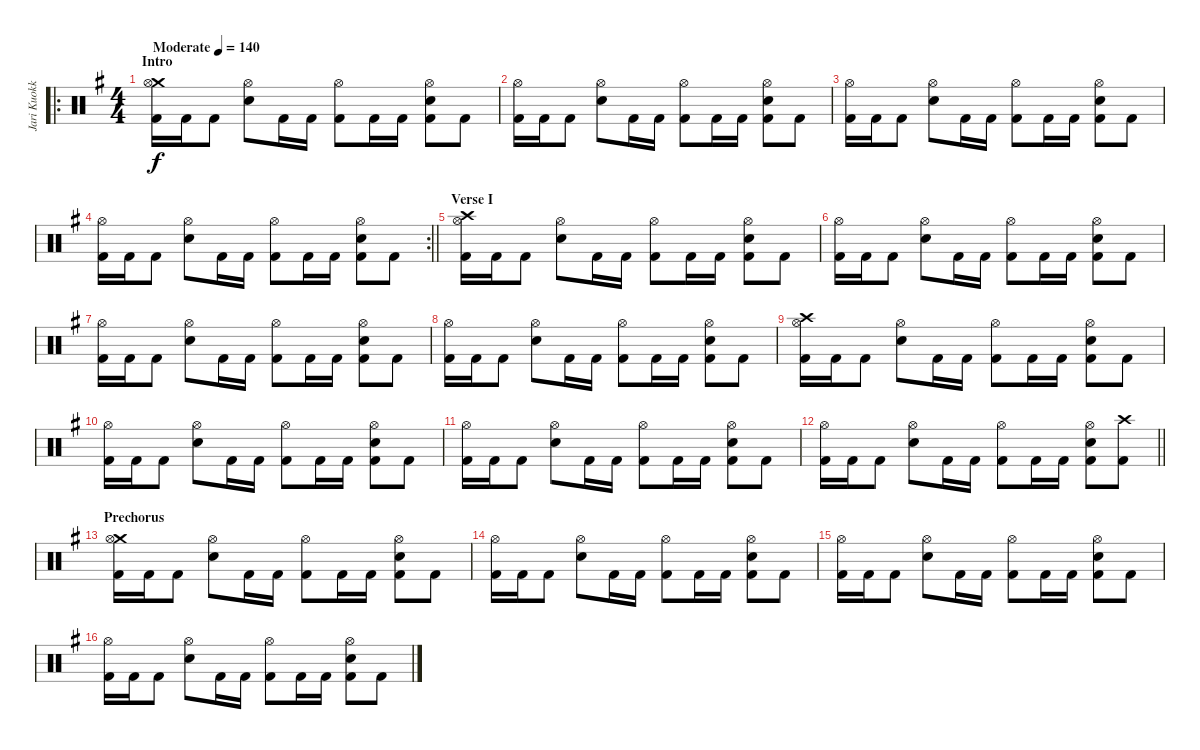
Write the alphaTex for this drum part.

\track ("Jari Kuokkanen" "Jari Kuokk") {instrument percussion}
\staff {score}
\articulation defaults
\ro
\ts (4 4)
\section ("" "Intro")
\tempo (140 "Moderate")
\clef neutral
\ks eminor
("Crash medium (hit)" "Hi-Hat (open)" "Kick (hit) 2").16{dy f} "Kick (hit) 2".16 "Kick (hit) 2".8 ("Hi-Hat (open)" "Snare (hit) 2").8 "Kick (hit) 2".16 "Kick (hit) 2".16 ("Hi-Hat (open)" "Kick (hit) 2").8 "Kick (hit) 2".16 "Kick (hit) 2".16 ("Hi-Hat (open)" "Snare (hit) 2" "Kick (hit) 2").8 "Kick (hit) 2".8 |
("Hi-Hat (open)" "Kick (hit) 2").16 "Kick (hit) 2".16 "Kick (hit) 2".8 ("Hi-Hat (open)" "Snare (hit) 2").8 "Kick (hit) 2".16 "Kick (hit) 2".16 ("Hi-Hat (open)" "Kick (hit) 2").8 "Kick (hit) 2".16 "Kick (hit) 2".16 ("Hi-Hat (open)" "Snare (hit) 2" "Kick (hit) 2").8 "Kick (hit) 2".8 |
("Hi-Hat (open)" "Kick (hit) 2").16 "Kick (hit) 2".16 "Kick (hit) 2".8 ("Hi-Hat (open)" "Snare (hit) 2").8 "Kick (hit) 2".16 "Kick (hit) 2".16 ("Hi-Hat (open)" "Kick (hit) 2").8 "Kick (hit) 2".16 "Kick (hit) 2".16 ("Hi-Hat (open)" "Snare (hit) 2" "Kick (hit) 2").8 "Kick (hit) 2".8 |
\rc 2
\barLineRight lightlight
("Hi-Hat (open)" "Kick (hit) 2").16 "Kick (hit) 2".16 "Kick (hit) 2".8 ("Hi-Hat (open)" "Snare (hit) 2").8 "Kick (hit) 2".16 "Kick (hit) 2".16 ("Hi-Hat (open)" "Kick (hit) 2").8 "Kick (hit) 2".16 "Kick (hit) 2".16 ("Hi-Hat (open)" "Snare (hit) 2" "Kick (hit) 2").8 "Kick (hit) 2".8 |
\section ("" "Verse I")
("Crash high (hit)" "Hi-Hat (open)" "Kick (hit) 2").16 "Kick (hit) 2".16 "Kick (hit) 2".8 ("Hi-Hat (open)" "Snare (hit) 2").8 "Kick (hit) 2".16 "Kick (hit) 2".16 ("Hi-Hat (open)" "Kick (hit) 2").8 "Kick (hit) 2".16 "Kick (hit) 2".16 ("Hi-Hat (open)" "Snare (hit) 2" "Kick (hit) 2").8 "Kick (hit) 2".8 |
("Hi-Hat (open)" "Kick (hit) 2").16 "Kick (hit) 2".16 "Kick (hit) 2".8 ("Hi-Hat (open)" "Snare (hit) 2").8 "Kick (hit) 2".16 "Kick (hit) 2".16 ("Hi-Hat (open)" "Kick (hit) 2").8 "Kick (hit) 2".16 "Kick (hit) 2".16 ("Hi-Hat (open)" "Snare (hit) 2" "Kick (hit) 2").8 "Kick (hit) 2".8 |
("Hi-Hat (open)" "Kick (hit) 2").16 "Kick (hit) 2".16 "Kick (hit) 2".8 ("Hi-Hat (open)" "Snare (hit) 2").8 "Kick (hit) 2".16 "Kick (hit) 2".16 ("Hi-Hat (open)" "Kick (hit) 2").8 "Kick (hit) 2".16 "Kick (hit) 2".16 ("Hi-Hat (open)" "Snare (hit) 2" "Kick (hit) 2").8 "Kick (hit) 2".8 |
("Hi-Hat (open)" "Kick (hit) 2").16 "Kick (hit) 2".16 "Kick (hit) 2".8 ("Hi-Hat (open)" "Snare (hit) 2").8 "Kick (hit) 2".16 "Kick (hit) 2".16 ("Hi-Hat (open)" "Kick (hit) 2").8 "Kick (hit) 2".16 "Kick (hit) 2".16 ("Hi-Hat (open)" "Snare (hit) 2" "Kick (hit) 2").8 "Kick (hit) 2".8 |
("Crash high (hit)" "Hi-Hat (open)" "Kick (hit) 2").16 "Kick (hit) 2".16 "Kick (hit) 2".8 ("Hi-Hat (open)" "Snare (hit) 2").8 "Kick (hit) 2".16 "Kick (hit) 2".16 ("Hi-Hat (open)" "Kick (hit) 2").8 "Kick (hit) 2".16 "Kick (hit) 2".16 ("Hi-Hat (open)" "Snare (hit) 2" "Kick (hit) 2").8 "Kick (hit) 2".8 |
("Hi-Hat (open)" "Kick (hit) 2").16 "Kick (hit) 2".16 "Kick (hit) 2".8 ("Hi-Hat (open)" "Snare (hit) 2").8 "Kick (hit) 2".16 "Kick (hit) 2".16 ("Hi-Hat (open)" "Kick (hit) 2").8 "Kick (hit) 2".16 "Kick (hit) 2".16 ("Hi-Hat (open)" "Snare (hit) 2" "Kick (hit) 2").8 "Kick (hit) 2".8 |
("Hi-Hat (open)" "Kick (hit) 2").16 "Kick (hit) 2".16 "Kick (hit) 2".8 ("Hi-Hat (open)" "Snare (hit) 2").8 "Kick (hit) 2".16 "Kick (hit) 2".16 ("Hi-Hat (open)" "Kick (hit) 2").8 "Kick (hit) 2".16 "Kick (hit) 2".16 ("Hi-Hat (open)" "Snare (hit) 2" "Kick (hit) 2").8 "Kick (hit) 2".8 |
\barLineRight lightlight
("Hi-Hat (open)" "Kick (hit) 2").16 "Kick (hit) 2".16 "Kick (hit) 2".8 ("Hi-Hat (open)" "Snare (hit) 2").8 "Kick (hit) 2".16 "Kick (hit) 2".16 ("Hi-Hat (open)" "Kick (hit) 2").8 "Kick (hit) 2".16 "Kick (hit) 2".16 ("Hi-Hat (open)" "Snare (hit) 2" "Kick (hit) 2").8 ("Crash high (hit)" "Kick (hit) 2").8 |
\section ("" "Prechorus")
("Crash medium (hit)" "Hi-Hat (open)" "Kick (hit) 2").16 "Kick (hit) 2".16 "Kick (hit) 2".8 ("Hi-Hat (open)" "Snare (hit) 2").8 "Kick (hit) 2".16 "Kick (hit) 2".16 ("Hi-Hat (open)" "Kick (hit) 2").8 "Kick (hit) 2".16 "Kick (hit) 2".16 ("Hi-Hat (open)" "Snare (hit) 2" "Kick (hit) 2").8 "Kick (hit) 2".8 |
("Hi-Hat (open)" "Kick (hit) 2").16 "Kick (hit) 2".16 "Kick (hit) 2".8 ("Hi-Hat (open)" "Snare (hit) 2").8 "Kick (hit) 2".16 "Kick (hit) 2".16 ("Hi-Hat (open)" "Kick (hit) 2").8 "Kick (hit) 2".16 "Kick (hit) 2".16 ("Hi-Hat (open)" "Snare (hit) 2" "Kick (hit) 2").8 "Kick (hit) 2".8 |
("Hi-Hat (open)" "Kick (hit) 2").16 "Kick (hit) 2".16 "Kick (hit) 2".8 ("Hi-Hat (open)" "Snare (hit) 2").8 "Kick (hit) 2".16 "Kick (hit) 2".16 ("Hi-Hat (open)" "Kick (hit) 2").8 "Kick (hit) 2".16 "Kick (hit) 2".16 ("Hi-Hat (open)" "Snare (hit) 2" "Kick (hit) 2").8 "Kick (hit) 2".8 |
("Hi-Hat (open)" "Kick (hit) 2").16 "Kick (hit) 2".16 "Kick (hit) 2".8 ("Hi-Hat (open)" "Snare (hit) 2").8 "Kick (hit) 2".16 "Kick (hit) 2".16 ("Hi-Hat (open)" "Kick (hit) 2").8 "Kick (hit) 2".16 "Kick (hit) 2".16 ("Hi-Hat (open)" "Snare (hit) 2" "Kick (hit) 2").8 "Kick (hit) 2".8
